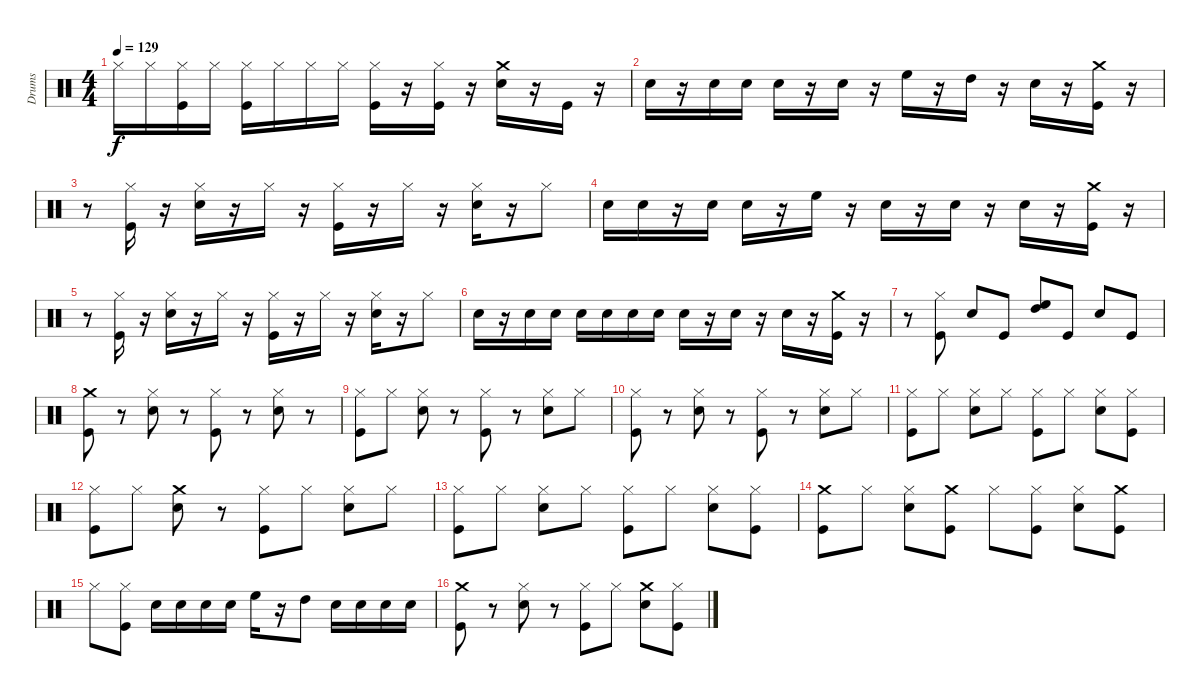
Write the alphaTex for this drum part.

\track ("Drums" "Drums") {instrument percussion}
\staff {score}
\articulation defaults
\ts (4 4)
\tempo 129
\clef neutral
\ks c "Hi-Hat (closed)".16{dy f} "Hi-Hat (closed)".16
("Hi-Hat (closed)" "Kick (hit)").16 "Hi-Hat (closed)".16 ("Kick (hit)" "Hi-Hat (closed)").16 "Hi-Hat (closed)".16 "Hi-Hat (closed)".16 "Hi-Hat (closed)".16 ("Hi-Hat (closed)" "Kick (hit)").16 r.16 ("Kick (hit)" "Hi-Hat (closed)").16 r.16 ("Crash medium (hit)" "Snare (hit) 2").16 r.16 "Kick (hit)".16 r.16 |
"Snare (hit) 2".16 r.16 "Snare (hit) 2".16 "Snare (hit) 2".16 "Snare (hit) 2".16 r.16 "Snare (hit) 2".16 r.16 "High Floor Tom (hit)".16 r.16 "High Tom (hit)".16 r.16 "Snare (hit) 2".16 r.16 ("Crash medium (hit)" "Kick (hit)").16 r.16 |
r.8 ("Hi-Hat (closed)" "Kick (hit)").16 r.16 ("Hi-Hat (closed)" "Snare (hit) 2").16 r.16 "Hi-Hat (closed)".16 r.16 ("Hi-Hat (closed)" "Kick (hit)").16 r.16 "Hi-Hat (closed)".16 r.16 ("Hi-Hat (closed)" "Snare (hit) 2").16 r.16 "Hi-Hat (closed)".8 |
"Snare (hit) 2".16 "Snare (hit) 2".16 r.16 "Snare (hit) 2".16 "Snare (hit) 2".16 r.16 "High Floor Tom (hit)".16 r.16 "Snare (hit) 2".16 r.16 "Snare (hit) 2".16 r.16 "Snare (hit) 2".16 r.16 ("Crash medium (hit)" "Kick (hit)").16 r.16 |
r.8 ("Kick (hit)" "Hi-Hat (closed)").16 r.16 ("Hi-Hat (closed)" "Snare (hit) 2").16 r.16 "Hi-Hat (closed)".16 r.16 ("Hi-Hat (closed)" "Kick (hit)").16 r.16 "Hi-Hat (closed)".16 r.16 ("Hi-Hat (closed)" "Snare (hit) 2").16 r.16 "Hi-Hat (closed)".8 |
"Snare (hit) 2".16 r.16 "Snare (hit) 2".16 "Snare (hit) 2".16 "Snare (hit) 2".16 "Snare (hit) 2".16 "Snare (hit) 2".16 "Snare (hit) 2".16 "Snare (hit) 2".16 r.16 "Snare (hit) 2".16 r.16 "Snare (hit) 2".16 r.16 ("Crash medium (hit)" "Kick (hit)").16 r.16 |
r.8 ("Hi-Hat (closed)" "Kick (hit)").8 "Snare (hit) 2".8 "Kick (hit)".8 ("High Floor Tom (hit)" "High Tom (hit)").8 "Kick (hit)".8 "Snare (hit) 2".8 "Kick (hit)".8 |
("Crash medium (hit)" "Kick (hit)").8 r.8 ("Hi-Hat (closed)" "Snare (hit) 2").8 r.8 ("Kick (hit)" "Hi-Hat (closed)").8 r.8 ("Snare (hit) 2" "Hi-Hat (closed)").8 r.8 |
("Hi-Hat (closed)" "Kick (hit)").8 "Hi-Hat (closed)".8 ("Snare (hit) 2" "Hi-Hat (closed)").8 r.8 ("Kick (hit)" "Hi-Hat (closed)").8 r.8 ("Snare (hit) 2" "Hi-Hat (closed)").8 "Hi-Hat (closed)".8 |
("Hi-Hat (closed)" "Kick (hit)").8 r.8 ("Snare (hit) 2" "Hi-Hat (closed)").8 r.8 ("Kick (hit)" "Hi-Hat (closed)").8 r.8 ("Snare (hit) 2" "Hi-Hat (closed)").8 "Hi-Hat (closed)".8 |
("Hi-Hat (closed)" "Kick (hit)").8 "Hi-Hat (closed)".8 ("Snare (hit) 2" "Hi-Hat (closed)").8 "Hi-Hat (closed)".8 ("Kick (hit)" "Hi-Hat (closed)").8 "Hi-Hat (closed)".8 ("Snare (hit) 2" "Hi-Hat (closed)").8 ("Kick (hit)" "Hi-Hat (closed)").8 |
("Hi-Hat (closed)" "Kick (hit)").8 "Hi-Hat (closed)".8 ("Snare (hit) 2" "Crash medium (hit)").8 r.8 ("Hi-Hat (closed)" "Kick (hit)").8 "Hi-Hat (closed)".8 ("Snare (hit) 2" "Hi-Hat (closed)").8 "Hi-Hat (closed)".8 |
("Hi-Hat (closed)" "Kick (hit)").8 "Hi-Hat (closed)".8 ("Snare (hit) 2" "Hi-Hat (closed)").8 "Hi-Hat (closed)".8 ("Hi-Hat (closed)" "Kick (hit)").8 "Hi-Hat (closed)".8 ("Snare (hit) 2" "Hi-Hat (closed)").8 ("Kick (hit)" "Hi-Hat (closed)").8 |
("Crash medium (hit)" "Kick (hit)").8 "Hi-Hat (closed)".8 ("Hi-Hat (closed)" "Snare (hit) 2").8 ("Crash medium (hit)" "Kick (hit)").8 "Hi-Hat (closed)".8 ("Kick (hit)" "Hi-Hat (closed)").8 ("Hi-Hat (closed)" "Snare (hit) 2").8 ("Crash medium (hit)" "Kick (hit)").8 |
"Hi-Hat (closed)".8 ("Hi-Hat (closed)" "Kick (hit)").8 "Snare (hit) 2".16 "Snare (hit) 2".16 "Snare (hit) 2".16 "Snare (hit) 2".16 "High Floor Tom (hit)".16 r.16 "High Tom (hit)".8 "Snare (hit) 2".16 "Snare (hit) 2".16 "Snare (hit) 2".16 "Snare (hit) 2".16 |
("Crash medium (hit)" "Kick (hit)").8 r.8 ("Hi-Hat (closed)" "Snare (hit) 2").8 r.8 ("Kick (hit)" "Hi-Hat (closed)").8 "Hi-Hat (closed)".8 ("Snare (hit) 2" "Crash medium (hit)").8 ("Hi-Hat (closed)" "Kick (hit)").8
